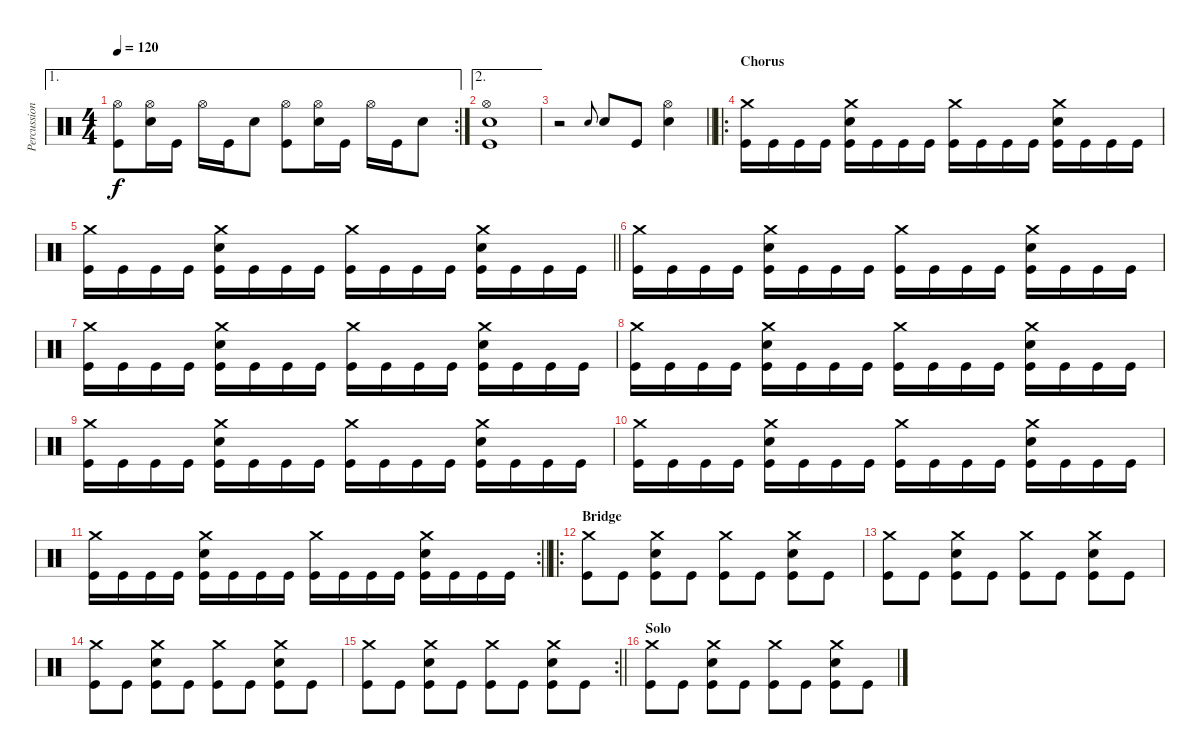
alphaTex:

\track ("Percussion" "Percussion") {instrument percussion}
\staff {score}
\articulation defaults
\ae 1
\rc 2
\ts (4 4)
\tempo 120
\clef neutral
\ks c
("Hi-Hat (open)" "Kick (hit)").8{dy f} ("Hi-Hat (open)" "Snare (hit) 2").16 "Kick (hit)".16 "Hi-Hat (open)".16 "Kick (hit)".16 "Snare (hit) 2".8 ("Hi-Hat (open)" "Kick (hit)").8 ("Hi-Hat (open)" "Snare (hit) 2").16 "Kick (hit)".16 "Hi-Hat (open)".16 "Kick (hit)".16 "Snare (hit) 2".8 |
\ae 2
("Hi-Hat (open)" "Snare (hit) 2" "Kick (hit)").1 |
\barLineRight lightlight
r.2 "Snare (hit) 2".8{gr onbeat} "Snare (hit) 2".8 "Kick (hit)".8 ("Hi-Hat (open)" "Snare (hit) 2").4 |
\ro
\section ("" "Chorus")
("Crash medium (hit)" "Kick (hit)").16 "Kick (hit)".16 "Kick (hit)".16 "Kick (hit)".16 ("Crash medium (hit)" "Snare (hit) 2" "Kick (hit)").16 "Kick (hit)".16 "Kick (hit)".16 "Kick (hit)".16 ("Crash medium (hit)" "Kick (hit)").16 "Kick (hit)".16 "Kick (hit)".16 "Kick (hit)".16 ("Crash medium (hit)" "Snare (hit) 2" "Kick (hit)").16 "Kick (hit)".16 "Kick (hit)".16 "Kick (hit)".16 |
\barLineRight lightlight
("Crash medium (hit)" "Kick (hit)").16 "Kick (hit)".16 "Kick (hit)".16 "Kick (hit)".16 ("Crash medium (hit)" "Snare (hit) 2" "Kick (hit)").16 "Kick (hit)".16 "Kick (hit)".16 "Kick (hit)".16 ("Crash medium (hit)" "Kick (hit)").16 "Kick (hit)".16 "Kick (hit)".16 "Kick (hit)".16 ("Crash medium (hit)" "Snare (hit) 2" "Kick (hit)").16 "Kick (hit)".16 "Kick (hit)".16 "Kick (hit)".16 |
("Crash medium (hit)" "Kick (hit)").16 "Kick (hit)".16 "Kick (hit)".16 "Kick (hit)".16 ("Crash medium (hit)" "Snare (hit) 2" "Kick (hit)").16 "Kick (hit)".16 "Kick (hit)".16 "Kick (hit)".16 ("Crash medium (hit)" "Kick (hit)").16 "Kick (hit)".16 "Kick (hit)".16 "Kick (hit)".16 ("Crash medium (hit)" "Snare (hit) 2" "Kick (hit)").16 "Kick (hit)".16 "Kick (hit)".16 "Kick (hit)".16 |
("Crash medium (hit)" "Kick (hit)").16 "Kick (hit)".16 "Kick (hit)".16 "Kick (hit)".16 ("Crash medium (hit)" "Snare (hit) 2" "Kick (hit)").16 "Kick (hit)".16 "Kick (hit)".16 "Kick (hit)".16 ("Crash medium (hit)" "Kick (hit)").16 "Kick (hit)".16 "Kick (hit)".16 "Kick (hit)".16 ("Crash medium (hit)" "Snare (hit) 2" "Kick (hit)").16 "Kick (hit)".16 "Kick (hit)".16 "Kick (hit)".16 |
("Crash medium (hit)" "Kick (hit)").16 "Kick (hit)".16 "Kick (hit)".16 "Kick (hit)".16 ("Crash medium (hit)" "Snare (hit) 2" "Kick (hit)").16 "Kick (hit)".16 "Kick (hit)".16 "Kick (hit)".16 ("Crash medium (hit)" "Kick (hit)").16 "Kick (hit)".16 "Kick (hit)".16 "Kick (hit)".16 ("Crash medium (hit)" "Snare (hit) 2" "Kick (hit)").16 "Kick (hit)".16 "Kick (hit)".16 "Kick (hit)".16 |
("Crash medium (hit)" "Kick (hit)").16 "Kick (hit)".16 "Kick (hit)".16 "Kick (hit)".16 ("Crash medium (hit)" "Snare (hit) 2" "Kick (hit)").16 "Kick (hit)".16 "Kick (hit)".16 "Kick (hit)".16 ("Crash medium (hit)" "Kick (hit)").16 "Kick (hit)".16 "Kick (hit)".16 "Kick (hit)".16 ("Crash medium (hit)" "Snare (hit) 2" "Kick (hit)").16 "Kick (hit)".16 "Kick (hit)".16 "Kick (hit)".16 |
("Crash medium (hit)" "Kick (hit)").16 "Kick (hit)".16 "Kick (hit)".16 "Kick (hit)".16 ("Crash medium (hit)" "Snare (hit) 2" "Kick (hit)").16 "Kick (hit)".16 "Kick (hit)".16 "Kick (hit)".16 ("Crash medium (hit)" "Kick (hit)").16 "Kick (hit)".16 "Kick (hit)".16 "Kick (hit)".16 ("Crash medium (hit)" "Snare (hit) 2" "Kick (hit)").16 "Kick (hit)".16 "Kick (hit)".16 "Kick (hit)".16 |
\rc 2
\barLineRight lightlight
("Crash medium (hit)" "Kick (hit)").16 "Kick (hit)".16 "Kick (hit)".16 "Kick (hit)".16 ("Crash medium (hit)" "Snare (hit) 2" "Kick (hit)").16 "Kick (hit)".16 "Kick (hit)".16 "Kick (hit)".16 ("Crash medium (hit)" "Kick (hit)").16 "Kick (hit)".16 "Kick (hit)".16 "Kick (hit)".16 ("Crash medium (hit)" "Snare (hit) 2" "Kick (hit)").16 "Kick (hit)".16 "Kick (hit)".16 "Kick (hit)".16 |
\ro
\section ("" "Bridge")
("Crash medium (hit)" "Kick (hit)").8 "Kick (hit)".8 ("Crash medium (hit)" "Snare (hit) 2" "Kick (hit)").8 "Kick (hit)".8 ("Crash medium (hit)" "Kick (hit)").8 "Kick (hit)".8 ("Crash medium (hit)" "Snare (hit) 2" "Kick (hit)").8 "Kick (hit)".8 |
("Crash medium (hit)" "Kick (hit)").8 "Kick (hit)".8 ("Crash medium (hit)" "Snare (hit) 2" "Kick (hit)").8 "Kick (hit)".8 ("Crash medium (hit)" "Kick (hit)").8 "Kick (hit)".8 ("Crash medium (hit)" "Snare (hit) 2" "Kick (hit)").8 "Kick (hit)".8 |
("Crash medium (hit)" "Kick (hit)").8 "Kick (hit)".8 ("Crash medium (hit)" "Snare (hit) 2" "Kick (hit)").8 "Kick (hit)".8 ("Crash medium (hit)" "Kick (hit)").8 "Kick (hit)".8 ("Crash medium (hit)" "Snare (hit) 2" "Kick (hit)").8 "Kick (hit)".8 |
\rc 2
\barLineRight lightlight
("Crash medium (hit)" "Kick (hit)").8 "Kick (hit)".8 ("Crash medium (hit)" "Snare (hit) 2" "Kick (hit)").8 "Kick (hit)".8 ("Crash medium (hit)" "Kick (hit)").8 "Kick (hit)".8 ("Crash medium (hit)" "Snare (hit) 2" "Kick (hit)").8 "Kick (hit)".8 |
\section ("" "Solo")
("Crash medium (hit)" "Kick (hit)").8 "Kick (hit)".8 ("Crash medium (hit)" "Snare (hit) 2" "Kick (hit)").8 "Kick (hit)".8 ("Crash medium (hit)" "Kick (hit)").8 "Kick (hit)".8 ("Crash medium (hit)" "Snare (hit) 2" "Kick (hit)").8 "Kick (hit)".8
